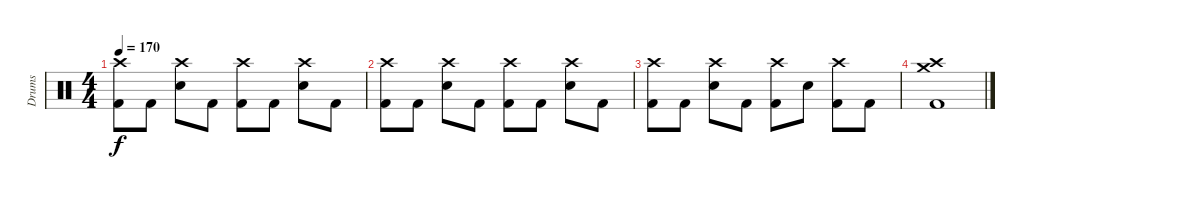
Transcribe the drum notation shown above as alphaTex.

\track ("Drums" "Drums") {instrument percussion}
\staff {score}
\articulation defaults
\ts (4 4)
\tempo 170
\clef neutral
\ks c
("Crash high (hit)" "Kick (hit) 2").8{dy f} "Kick (hit) 2".8 ("Crash high (hit)" "Electric Snare (hit)").8 "Kick (hit) 2".8 ("Crash high (hit)" "Kick (hit) 2").8 "Kick (hit) 2".8 ("Crash high (hit)" "Electric Snare (hit)").8 "Kick (hit) 2".8 |
("Crash high (hit)" "Kick (hit) 2").8 "Kick (hit) 2".8 ("Crash high (hit)" "Electric Snare (hit)").8 "Kick (hit) 2".8 ("Crash high (hit)" "Kick (hit) 2").8 "Kick (hit) 2".8 ("Crash high (hit)" "Electric Snare (hit)").8 "Kick (hit) 2".8 |
("Crash high (hit)" "Kick (hit) 2").8 "Kick (hit) 2".8 ("Crash high (hit)" "Electric Snare (hit)").8 "Kick (hit) 2".8 ("Crash high (hit)" "Kick (hit) 2").8 "Electric Snare (hit)".8 ("Crash high (hit)" "Kick (hit) 2").8 "Kick (hit) 2".8 |
("Crash high (hit)" "Crash medium (hit)" "Kick (hit) 2").1
